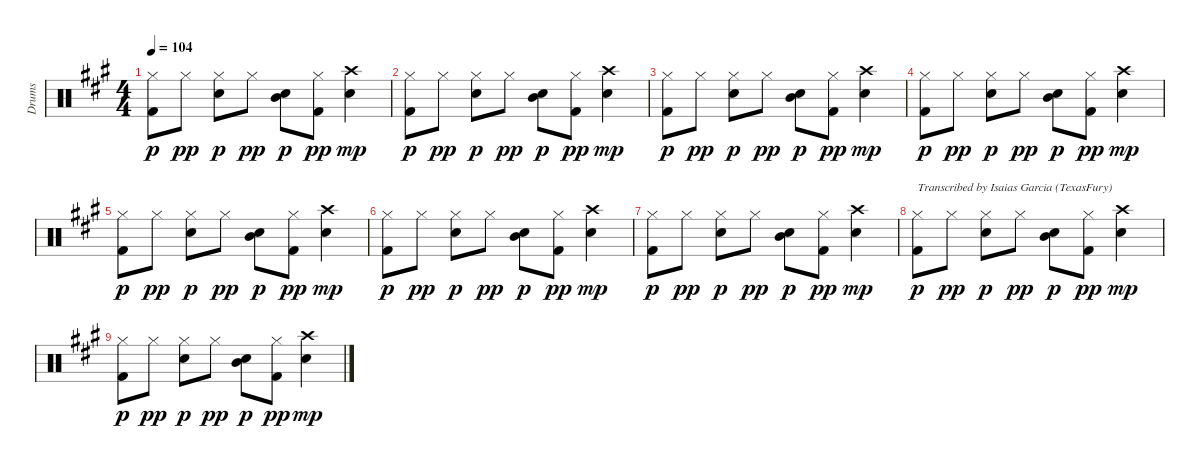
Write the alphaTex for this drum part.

\track ("Drums" "Drums") {instrument percussion}
\staff {score}
\articulation defaults
\ts (4 4)
\tempo 104
\clef neutral
\ks a
("Kick (hit) 2" "Hi-Hat (closed)").8{dy p} "Hi-Hat (closed)".8{dy pp} ("Electric Snare (hit)" "Hi-Hat (closed)").8{dy p} "Hi-Hat (closed)".8{dy pp} ("Electric Snare (hit)" "Mid Tom (hit)").8{dy p} ("Kick (hit) 2" "Hi-Hat (closed)").8{dy pp} ("Electric Snare (hit)" "Crash high (hit)").4{dy mp} |
("Kick (hit) 2" "Hi-Hat (closed)").8{dy p} "Hi-Hat (closed)".8{dy pp} ("Electric Snare (hit)" "Hi-Hat (closed)").8{dy p} "Hi-Hat (closed)".8{dy pp} ("Electric Snare (hit)" "Mid Tom (hit)").8{dy p} ("Kick (hit) 2" "Hi-Hat (closed)").8{dy pp} ("Electric Snare (hit)" "Crash high (hit)").4{dy mp} |
("Kick (hit) 2" "Hi-Hat (closed)").8{dy p} "Hi-Hat (closed)".8{dy pp} ("Electric Snare (hit)" "Hi-Hat (closed)").8{dy p} "Hi-Hat (closed)".8{dy pp} ("Electric Snare (hit)" "Mid Tom (hit)").8{dy p volume 4} ("Kick (hit) 2" "Hi-Hat (closed)").8{dy pp} ("Electric Snare (hit)" "Crash high (hit)").4{dy mp} |
("Kick (hit) 2" "Hi-Hat (closed)").8{dy p} "Hi-Hat (closed)".8{dy pp} ("Electric Snare (hit)" "Hi-Hat (closed)").8{dy p} "Hi-Hat (closed)".8{dy pp} ("Electric Snare (hit)" "Mid Tom (hit)").8{dy p} ("Kick (hit) 2" "Hi-Hat (closed)").8{dy pp} ("Electric Snare (hit)" "Crash high (hit)").4{dy mp} |
("Kick (hit) 2" "Hi-Hat (closed)").8{dy p} "Hi-Hat (closed)".8{dy pp} ("Electric Snare (hit)" "Hi-Hat (closed)").8{dy p} "Hi-Hat (closed)".8{dy pp} ("Electric Snare (hit)" "Mid Tom (hit)").8{dy p} ("Kick (hit) 2" "Hi-Hat (closed)").8{dy pp} ("Electric Snare (hit)" "Crash high (hit)").4{dy mp} |
("Kick (hit) 2" "Hi-Hat (closed)").8{dy p} "Hi-Hat (closed)".8{dy pp} ("Electric Snare (hit)" "Hi-Hat (closed)").8{dy p} "Hi-Hat (closed)".8{dy pp} ("Electric Snare (hit)" "Mid Tom (hit)").8{dy p} ("Kick (hit) 2" "Hi-Hat (closed)").8{dy pp} ("Electric Snare (hit)" "Crash high (hit)").4{dy mp volume 0} |
("Kick (hit) 2" "Hi-Hat (closed)").8{dy p} "Hi-Hat (closed)".8{dy pp} ("Electric Snare (hit)" "Hi-Hat (closed)").8{dy p} "Hi-Hat (closed)".8{dy pp} ("Electric Snare (hit)" "Mid Tom (hit)").8{dy p} ("Kick (hit) 2" "Hi-Hat (closed)").8{dy pp} ("Electric Snare (hit)" "Crash high (hit)").4{dy mp} |
("Kick (hit) 2" "Hi-Hat (closed)").8{txt "Transcribed by Isaias Garcia (TexasFury)" dy p} "Hi-Hat (closed)".8{dy pp} ("Electric Snare (hit)" "Hi-Hat (closed)").8{dy p} "Hi-Hat (closed)".8{dy pp} ("Electric Snare (hit)" "Mid Tom (hit)").8{dy p} ("Kick (hit) 2" "Hi-Hat (closed)").8{dy pp} ("Electric Snare (hit)" "Crash high (hit)").4{dy mp} |
("Kick (hit) 2" "Hi-Hat (closed)").8{dy p} "Hi-Hat (closed)".8{dy pp} ("Electric Snare (hit)" "Hi-Hat (closed)").8{dy p} "Hi-Hat (closed)".8{dy pp} ("Electric Snare (hit)" "Mid Tom (hit)").8{dy p} ("Kick (hit) 2" "Hi-Hat (closed)").8{dy pp} ("Electric Snare (hit)" "Crash high (hit)").4{dy mp}
